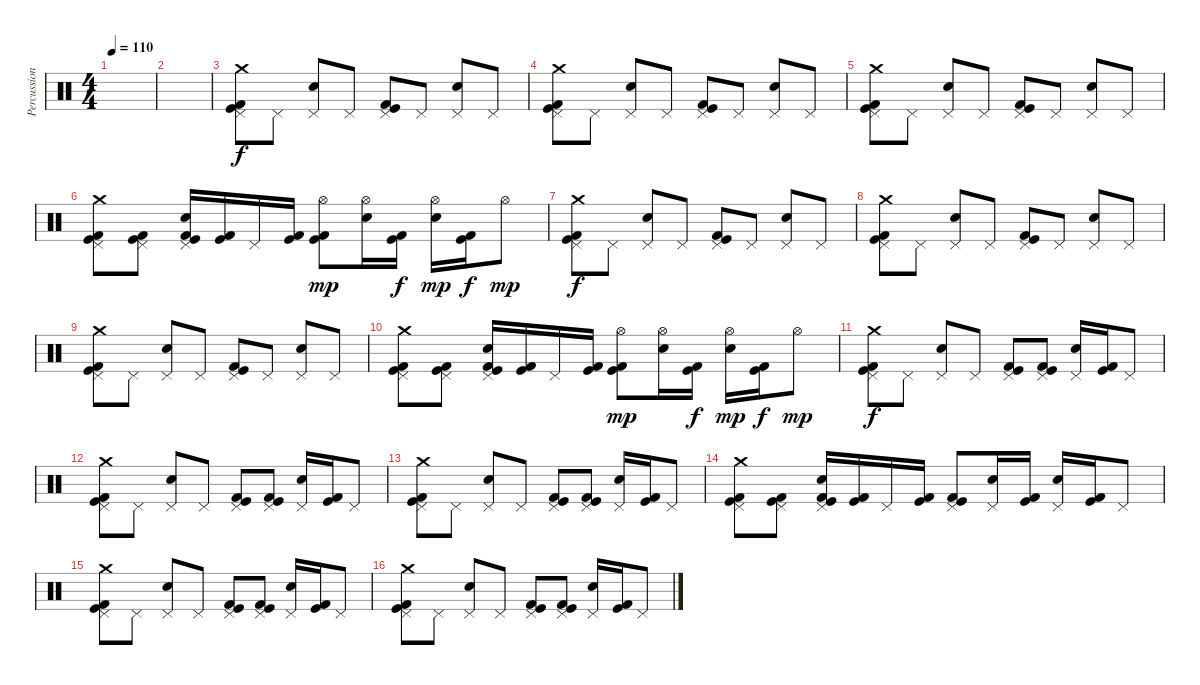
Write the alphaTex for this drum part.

\track ("Percussions" "Percussion") {instrument percussion}
\staff {score}
\articulation defaults
\ts (4 4)
\tempo 110
\clef neutral
\ks c
|
|
("Crash medium (hit)" "Pedal Hi-Hat (hit)" "Kick (hit)" "Kick (hit) 2").8 "Pedal Hi-Hat (hit)".8 ("Pedal Hi-Hat (hit)" "Electric Snare (hit)").8 "Pedal Hi-Hat (hit)".8 ("Pedal Hi-Hat (hit)" "Kick (hit)" "Kick (hit) 2").8 "Pedal Hi-Hat (hit)".8 ("Pedal Hi-Hat (hit)" "Electric Snare (hit)").8 "Pedal Hi-Hat (hit)".8 |
("Crash medium (hit)" "Pedal Hi-Hat (hit)" "Kick (hit)" "Kick (hit) 2").8 "Pedal Hi-Hat (hit)".8 ("Pedal Hi-Hat (hit)" "Electric Snare (hit)").8 "Pedal Hi-Hat (hit)".8 ("Pedal Hi-Hat (hit)" "Kick (hit)" "Kick (hit) 2").8 "Pedal Hi-Hat (hit)".8 ("Pedal Hi-Hat (hit)" "Electric Snare (hit)").8 "Pedal Hi-Hat (hit)".8 |
("Crash medium (hit)" "Pedal Hi-Hat (hit)" "Kick (hit)" "Kick (hit) 2").8 "Pedal Hi-Hat (hit)".8 ("Pedal Hi-Hat (hit)" "Electric Snare (hit)").8 "Pedal Hi-Hat (hit)".8 ("Pedal Hi-Hat (hit)" "Kick (hit)" "Kick (hit) 2").8 "Pedal Hi-Hat (hit)".8 ("Pedal Hi-Hat (hit)" "Electric Snare (hit)").8 "Pedal Hi-Hat (hit)".8 |
("Crash medium (hit)" "Pedal Hi-Hat (hit)" "Kick (hit)" "Kick (hit) 2").8 ("Pedal Hi-Hat (hit)" "Kick (hit)" "Kick (hit) 2").8 ("Pedal Hi-Hat (hit)" "Electric Snare (hit)" "Kick (hit)" "Kick (hit) 2").16 ("Kick (hit)" "Kick (hit) 2").16 "Pedal Hi-Hat (hit)".16 ("Kick (hit)" "Kick (hit) 2").16 ("Hi-Hat (open)" "Kick (hit)" "Kick (hit) 2").8{dy mp} ("Hi-Hat (open)" "Electric Snare (hit)").16 ("Kick (hit)" "Kick (hit) 2").16{dy f} ("Hi-Hat (open)" "Electric Snare (hit)").16{dy mp} ("Kick (hit)" "Kick (hit) 2").16{dy f} "Hi-Hat (open)".8{dy mp} |
("Crash medium (hit)" "Pedal Hi-Hat (hit)" "Kick (hit)" "Kick (hit) 2").8{dy f} "Pedal Hi-Hat (hit)".8 ("Pedal Hi-Hat (hit)" "Electric Snare (hit)").8 "Pedal Hi-Hat (hit)".8 ("Pedal Hi-Hat (hit)" "Kick (hit)" "Kick (hit) 2").8 "Pedal Hi-Hat (hit)".8 ("Pedal Hi-Hat (hit)" "Electric Snare (hit)").8 "Pedal Hi-Hat (hit)".8 |
("Crash medium (hit)" "Pedal Hi-Hat (hit)" "Kick (hit)" "Kick (hit) 2").8 "Pedal Hi-Hat (hit)".8 ("Pedal Hi-Hat (hit)" "Electric Snare (hit)").8 "Pedal Hi-Hat (hit)".8 ("Pedal Hi-Hat (hit)" "Kick (hit)" "Kick (hit) 2").8 "Pedal Hi-Hat (hit)".8 ("Pedal Hi-Hat (hit)" "Electric Snare (hit)").8 "Pedal Hi-Hat (hit)".8 |
("Crash medium (hit)" "Pedal Hi-Hat (hit)" "Kick (hit)" "Kick (hit) 2").8 "Pedal Hi-Hat (hit)".8 ("Pedal Hi-Hat (hit)" "Electric Snare (hit)").8 "Pedal Hi-Hat (hit)".8 ("Pedal Hi-Hat (hit)" "Kick (hit)" "Kick (hit) 2").8 "Pedal Hi-Hat (hit)".8 ("Pedal Hi-Hat (hit)" "Electric Snare (hit)").8 "Pedal Hi-Hat (hit)".8 |
("Crash medium (hit)" "Pedal Hi-Hat (hit)" "Kick (hit)" "Kick (hit) 2").8 ("Pedal Hi-Hat (hit)" "Kick (hit)" "Kick (hit) 2").8 ("Pedal Hi-Hat (hit)" "Electric Snare (hit)" "Kick (hit)" "Kick (hit) 2").16 ("Kick (hit)" "Kick (hit) 2").16 "Pedal Hi-Hat (hit)".16 ("Kick (hit)" "Kick (hit) 2").16 ("Hi-Hat (open)" "Kick (hit)" "Kick (hit) 2").8{dy mp} ("Hi-Hat (open)" "Electric Snare (hit)").16 ("Kick (hit)" "Kick (hit) 2").16{dy f} ("Hi-Hat (open)" "Electric Snare (hit)").16{dy mp} ("Kick (hit)" "Kick (hit) 2").16{dy f} "Hi-Hat (open)".8{dy mp} |
("Crash medium (hit)" "Pedal Hi-Hat (hit)" "Kick (hit)" "Kick (hit) 2").8{dy f} "Pedal Hi-Hat (hit)".8 ("Pedal Hi-Hat (hit)" "Electric Snare (hit)").8 "Pedal Hi-Hat (hit)".8 ("Pedal Hi-Hat (hit)" "Kick (hit)" "Kick (hit) 2").8 ("Pedal Hi-Hat (hit)" "Kick (hit)" "Kick (hit) 2").8 ("Pedal Hi-Hat (hit)" "Electric Snare (hit)").16 ("Kick (hit)" "Kick (hit) 2").16 "Pedal Hi-Hat (hit)".8 |
("Crash medium (hit)" "Pedal Hi-Hat (hit)" "Kick (hit)" "Kick (hit) 2").8 "Pedal Hi-Hat (hit)".8 ("Pedal Hi-Hat (hit)" "Electric Snare (hit)").8 "Pedal Hi-Hat (hit)".8 ("Pedal Hi-Hat (hit)" "Kick (hit)" "Kick (hit) 2").8 ("Pedal Hi-Hat (hit)" "Kick (hit)" "Kick (hit) 2").8 ("Pedal Hi-Hat (hit)" "Electric Snare (hit)").16 ("Kick (hit)" "Kick (hit) 2").16 "Pedal Hi-Hat (hit)".8 |
("Crash medium (hit)" "Pedal Hi-Hat (hit)" "Kick (hit)" "Kick (hit) 2").8 "Pedal Hi-Hat (hit)".8 ("Pedal Hi-Hat (hit)" "Electric Snare (hit)").8 "Pedal Hi-Hat (hit)".8 ("Pedal Hi-Hat (hit)" "Kick (hit)" "Kick (hit) 2").8 ("Pedal Hi-Hat (hit)" "Kick (hit)" "Kick (hit) 2").8 ("Pedal Hi-Hat (hit)" "Electric Snare (hit)").16 ("Kick (hit)" "Kick (hit) 2").16 "Pedal Hi-Hat (hit)".8 |
("Crash medium (hit)" "Pedal Hi-Hat (hit)" "Kick (hit)" "Kick (hit) 2").8 ("Pedal Hi-Hat (hit)" "Kick (hit)" "Kick (hit) 2").8 ("Pedal Hi-Hat (hit)" "Electric Snare (hit)" "Kick (hit)" "Kick (hit) 2").16 ("Kick (hit)" "Kick (hit) 2").16 "Pedal Hi-Hat (hit)".16 ("Kick (hit)" "Kick (hit) 2").16 ("Pedal Hi-Hat (hit)" "Kick (hit)" "Kick (hit) 2").8 ("Pedal Hi-Hat (hit)" "Electric Snare (hit)").16 ("Kick (hit)" "Kick (hit) 2").16 ("Pedal Hi-Hat (hit)" "Electric Snare (hit)").16 ("Kick (hit)" "Kick (hit) 2").16 "Pedal Hi-Hat (hit)".8 |
("Crash medium (hit)" "Pedal Hi-Hat (hit)" "Kick (hit)" "Kick (hit) 2").8 "Pedal Hi-Hat (hit)".8 ("Pedal Hi-Hat (hit)" "Electric Snare (hit)").8 "Pedal Hi-Hat (hit)".8 ("Pedal Hi-Hat (hit)" "Kick (hit)" "Kick (hit) 2").8 ("Pedal Hi-Hat (hit)" "Kick (hit)" "Kick (hit) 2").8 ("Pedal Hi-Hat (hit)" "Electric Snare (hit)").16 ("Kick (hit)" "Kick (hit) 2").16 "Pedal Hi-Hat (hit)".8 |
("Crash medium (hit)" "Pedal Hi-Hat (hit)" "Kick (hit)" "Kick (hit) 2").8 "Pedal Hi-Hat (hit)".8 ("Pedal Hi-Hat (hit)" "Electric Snare (hit)").8 "Pedal Hi-Hat (hit)".8 ("Pedal Hi-Hat (hit)" "Kick (hit)" "Kick (hit) 2").8 ("Pedal Hi-Hat (hit)" "Kick (hit)" "Kick (hit) 2").8 ("Pedal Hi-Hat (hit)" "Electric Snare (hit)").16 ("Kick (hit)" "Kick (hit) 2").16 "Pedal Hi-Hat (hit)".8
